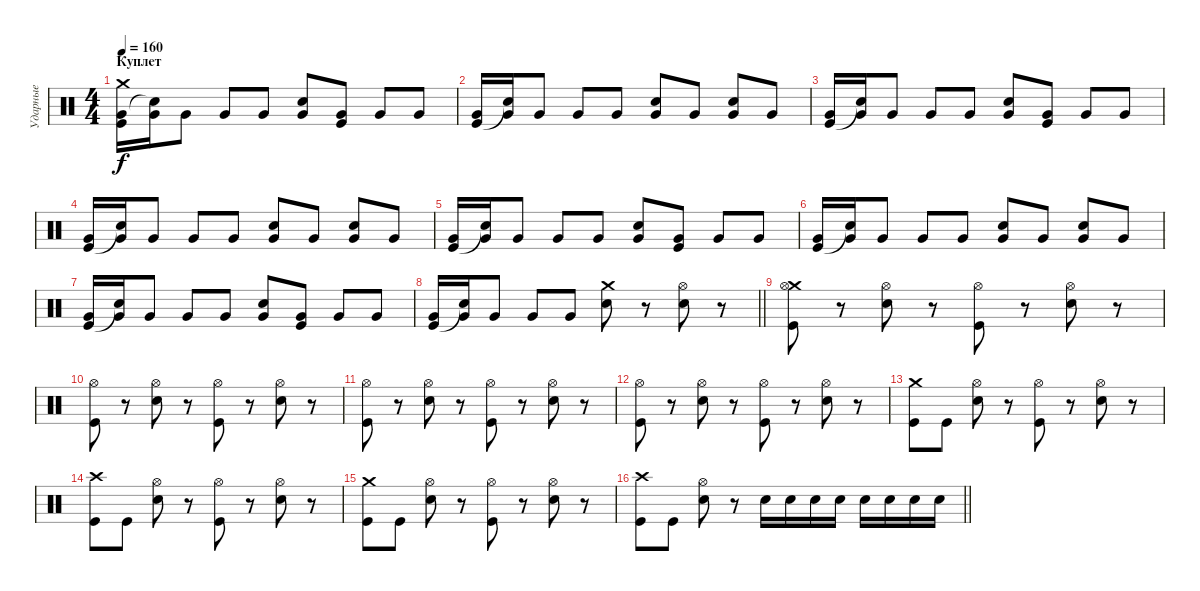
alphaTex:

\track ("Ударные" "Ударные") {instrument percussion}
\staff {score}
\articulation defaults
\ts (4 4)
\section ("" "Куплет")
\tempo 160
\clef neutral
\ks c
("Crash medium (hit)" "Very Low Tom (hit)" "Kick (hit)").16{dy f} ("Very Low Tom (hit)" "Snare (hit)"{t}).16 "Very Low Tom (hit)".8 "Very Low Tom (hit)".8 "Very Low Tom (hit)".8 ("Very Low Tom (hit)" "Electric Snare (hit)").8 ("Very Low Tom (hit)" "Kick (hit)").8 "Very Low Tom (hit)".8 "Very Low Tom (hit)".8 |
("Very Low Tom (hit)" "Kick (hit)").16 ("Very Low Tom (hit)" "Snare (hit)"{t}).16 "Very Low Tom (hit)".8 "Very Low Tom (hit)".8 "Very Low Tom (hit)".8 ("Very Low Tom (hit)" "Electric Snare (hit)").8 "Very Low Tom (hit)".8 ("Very Low Tom (hit)" "Electric Snare (hit)").8 "Very Low Tom (hit)".8 |
("Very Low Tom (hit)" "Kick (hit)").16 ("Very Low Tom (hit)" "Snare (hit)"{t}).16 "Very Low Tom (hit)".8 "Very Low Tom (hit)".8 "Very Low Tom (hit)".8 ("Very Low Tom (hit)" "Electric Snare (hit)").8 ("Very Low Tom (hit)" "Kick (hit)").8 "Very Low Tom (hit)".8 "Very Low Tom (hit)".8 |
("Very Low Tom (hit)" "Kick (hit)").16 ("Very Low Tom (hit)" "Snare (hit)"{t}).16 "Very Low Tom (hit)".8 "Very Low Tom (hit)".8 "Very Low Tom (hit)".8 ("Very Low Tom (hit)" "Electric Snare (hit)").8 "Very Low Tom (hit)".8 ("Very Low Tom (hit)" "Electric Snare (hit)").8 "Very Low Tom (hit)".8 |
("Very Low Tom (hit)" "Kick (hit)").16 ("Very Low Tom (hit)" "Snare (hit)"{t}).16 "Very Low Tom (hit)".8 "Very Low Tom (hit)".8 "Very Low Tom (hit)".8 ("Very Low Tom (hit)" "Electric Snare (hit)").8 ("Very Low Tom (hit)" "Kick (hit)").8 "Very Low Tom (hit)".8 "Very Low Tom (hit)".8 |
("Very Low Tom (hit)" "Kick (hit)").16 ("Very Low Tom (hit)" "Snare (hit)"{t}).16 "Very Low Tom (hit)".8 "Very Low Tom (hit)".8 "Very Low Tom (hit)".8 ("Very Low Tom (hit)" "Electric Snare (hit)").8 "Very Low Tom (hit)".8 ("Very Low Tom (hit)" "Electric Snare (hit)").8 "Very Low Tom (hit)".8 |
("Very Low Tom (hit)" "Kick (hit)").16 ("Very Low Tom (hit)" "Snare (hit)"{t}).16 "Very Low Tom (hit)".8 "Very Low Tom (hit)".8 "Very Low Tom (hit)".8 ("Very Low Tom (hit)" "Electric Snare (hit)").8 ("Very Low Tom (hit)" "Kick (hit)").8 "Very Low Tom (hit)".8 "Very Low Tom (hit)".8 |
\barLineRight lightlight
("Very Low Tom (hit)" "Kick (hit)").16 ("Very Low Tom (hit)" "Snare (hit)"{t}).16 "Very Low Tom (hit)".8 "Very Low Tom (hit)".8 "Very Low Tom (hit)".8 ("Crash medium (hit)" "Electric Snare (hit)").8 r.8 ("Hi-Hat (open)" "Electric Snare (hit)").8 r.8 |
("Crash medium (hit)" "Hi-Hat (open)" "Kick (hit)").8 r.8 ("Hi-Hat (open)" "Electric Snare (hit)").8 r.8 ("Hi-Hat (open)" "Kick (hit)").8 r.8 ("Hi-Hat (open)" "Electric Snare (hit)").8 r.8 |
("Hi-Hat (open)" "Kick (hit)").8 r.8 ("Hi-Hat (open)" "Electric Snare (hit)").8 r.8 ("Hi-Hat (open)" "Kick (hit)").8 r.8 ("Hi-Hat (open)" "Electric Snare (hit)").8 r.8 |
("Hi-Hat (open)" "Kick (hit)").8 r.8 ("Hi-Hat (open)" "Electric Snare (hit)").8 r.8 ("Hi-Hat (open)" "Kick (hit)").8 r.8 ("Hi-Hat (open)" "Electric Snare (hit)").8 r.8 |
("Hi-Hat (open)" "Kick (hit)").8 r.8 ("Hi-Hat (open)" "Electric Snare (hit)").8 r.8 ("Hi-Hat (open)" "Kick (hit)").8 r.8 ("Hi-Hat (open)" "Electric Snare (hit)").8 r.8 |
("Crash medium (hit)" "Kick (hit)").8 "Kick (hit)".8 ("Hi-Hat (open)" "Electric Snare (hit)").8 r.8 ("Hi-Hat (open)" "Kick (hit)").8 r.8 ("Hi-Hat (open)" "Electric Snare (hit)").8 r.8 |
("Crash high (hit)" "Kick (hit)").8 "Kick (hit)".8 ("Hi-Hat (open)" "Electric Snare (hit)").8 r.8 ("Hi-Hat (open)" "Kick (hit)").8 r.8 ("Hi-Hat (open)" "Electric Snare (hit)").8 r.8 |
("Crash medium (hit)" "Kick (hit)").8 "Kick (hit)".8 ("Hi-Hat (open)" "Electric Snare (hit)").8 r.8 ("Hi-Hat (open)" "Kick (hit)").8 r.8 ("Hi-Hat (open)" "Electric Snare (hit)").8 r.8 |
\barLineRight lightlight
("Crash high (hit)" "Kick (hit)").8 "Kick (hit)".8 ("Hi-Hat (open)" "Electric Snare (hit)").8 r.8 "Electric Snare (hit)".16 "Electric Snare (hit)".16 "Electric Snare (hit)".16 "Electric Snare (hit)".16 "Electric Snare (hit)".16 "Electric Snare (hit)".16 "Electric Snare (hit)".16 "Electric Snare (hit)".16
